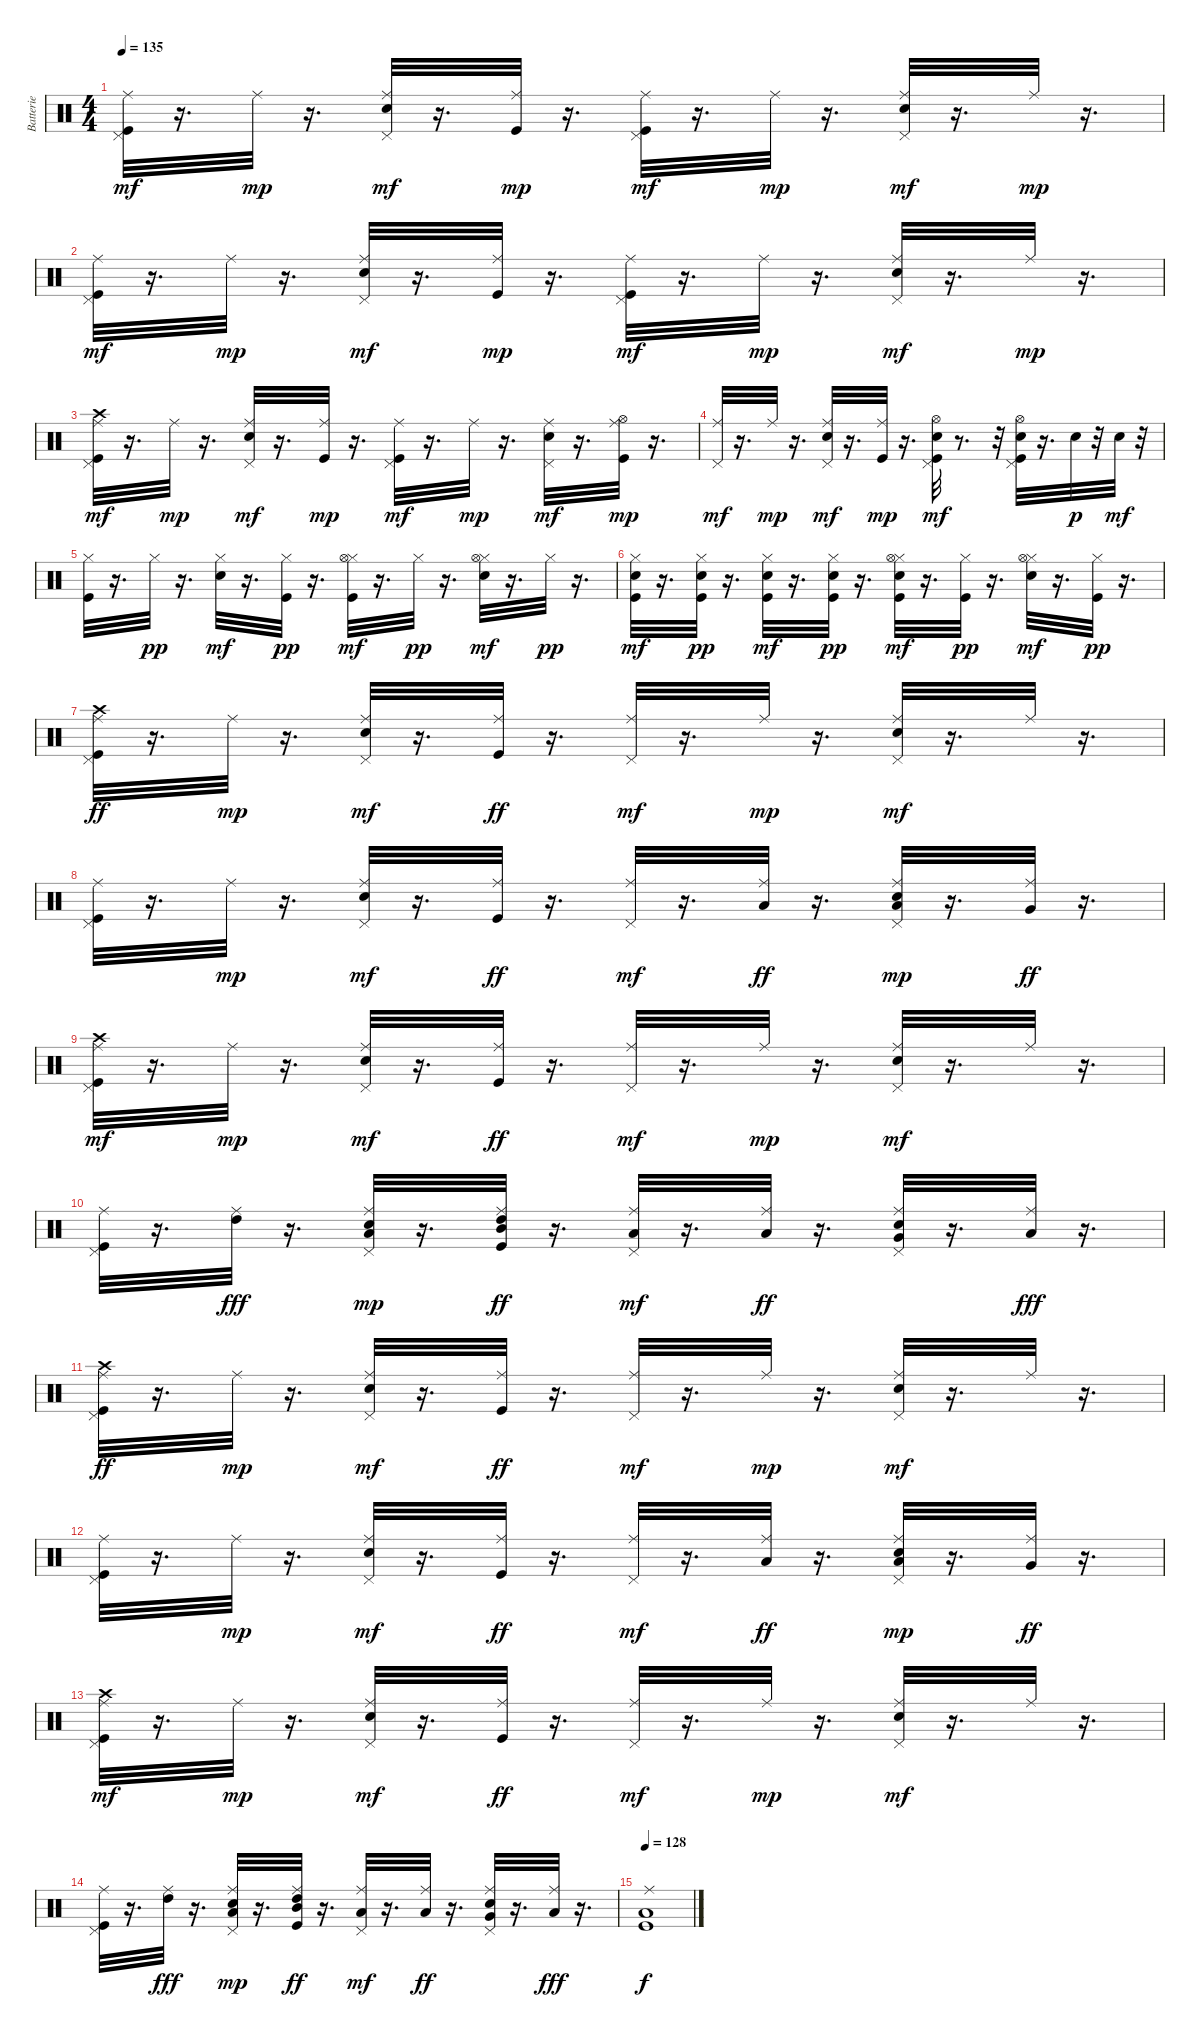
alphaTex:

\track ("Batterie" "Batterie") {instrument percussion}
\staff {score}
\articulation defaults
\ts (4 4)
\tempo 135
\clef neutral
\ks c
("Kick (hit)" "Pedal Hi-Hat (hit)" "Ride (middle)").32{dy mf} r.16{d} "Ride (middle)".32{dy mp} r.16{d} ("Electric Snare (hit)" "Pedal Hi-Hat (hit)" "Ride (middle)").32{dy mf} r.16{d} ("Kick (hit)" "Ride (middle)").32{dy mp} r.16{d} ("Kick (hit)" "Pedal Hi-Hat (hit)" "Ride (middle)").32{dy mf} r.16{d} "Ride (middle)".32{dy mp} r.16{d} ("Electric Snare (hit)" "Pedal Hi-Hat (hit)" "Ride (middle)").32{dy mf} r.16{d} "Ride (middle)".32{dy mp} r.16{d} |
("Kick (hit)" "Pedal Hi-Hat (hit)" "Ride (middle)").32{dy mf} r.16{d} "Ride (middle)".32{dy mp} r.16{d} ("Electric Snare (hit)" "Pedal Hi-Hat (hit)" "Ride (middle)").32{dy mf} r.16{d} ("Kick (hit)" "Ride (middle)").32{dy mp} r.16{d} ("Kick (hit)" "Pedal Hi-Hat (hit)" "Ride (middle)").32{dy mf} r.16{d} "Ride (middle)".32{dy mp} r.16{d} ("Electric Snare (hit)" "Pedal Hi-Hat (hit)" "Ride (middle)").32{dy mf} r.16{d} "Ride (middle)".32{dy mp} r.16{d} |
("Kick (hit)" "Pedal Hi-Hat (hit)" "Ride (middle)" "Crash high (hit)").32{dy mf} r.16{d} "Ride (middle)".32{dy mp} r.16{d} ("Electric Snare (hit)" "Pedal Hi-Hat (hit)" "Ride (middle)").32{dy mf} r.16{d} ("Kick (hit)" "Ride (middle)").32{dy mp} r.16{d} ("Kick (hit)" "Pedal Hi-Hat (hit)" "Ride (middle)").32{dy mf} r.16{d} "Ride (middle)".32{dy mp} r.16{d} ("Electric Snare (hit)" "Pedal Hi-Hat (hit)" "Ride (middle)").32{dy mf} r.16{d} ("Kick (hit)" "Hi-Hat (open)" "Ride (middle)").32{dy mp} r.16{d} |
("Pedal Hi-Hat (hit)" "Ride (middle)").32{dy mf} r.16{d} "Ride (middle)".32{dy mp} r.16{d} ("Electric Snare (hit)" "Pedal Hi-Hat (hit)" "Ride (middle)").32{dy mf} r.16{d} ("Kick (hit)" "Ride (middle)").32{dy mp} r.16{d} ("Kick (hit)" "Electric Snare (hit)" "Pedal Hi-Hat (hit)" "Hi-Hat (open)").32{dy mf} r.8{d} r.32 ("Kick (hit)" "Electric Snare (hit)" "Pedal Hi-Hat (hit)" "Hi-Hat (open)").32 r.16{d} "Electric Snare (hit)".32{dy p} r.32 "Electric Snare (hit)".32{dy mf} r.32 |
("Kick (hit)" "Hi-Hat (closed)").32 r.16{d} "Hi-Hat (closed)".32{dy pp} r.16{d} ("Electric Snare (hit)" "Hi-Hat (closed)").32{dy mf} r.16{d} ("Kick (hit)" "Hi-Hat (closed)").32{dy pp} r.16{d} ("Kick (hit)" "Hi-Hat (closed)" "Hi-Hat (open)").32{dy mf} r.16{d} "Hi-Hat (closed)".32{dy pp} r.16{d} ("Electric Snare (hit)" "Hi-Hat (closed)" "Hi-Hat (open)").32{dy mf} r.16{d} "Hi-Hat (closed)".32{dy pp} r.16{d} |
("Kick (hit)" "Electric Snare (hit)" "Hi-Hat (closed)").32{dy mf} r.16{d} ("Kick (hit)" "Electric Snare (hit)" "Hi-Hat (closed)").32{dy pp} r.16{d} ("Kick (hit)" "Electric Snare (hit)" "Hi-Hat (closed)").32{dy mf} r.16{d} ("Kick (hit)" "Electric Snare (hit)" "Hi-Hat (closed)").32{dy pp} r.16{d} ("Kick (hit)" "Electric Snare (hit)" "Hi-Hat (closed)" "Hi-Hat (open)").32{dy mf} r.16{d} ("Kick (hit)" "Hi-Hat (closed)").32{dy pp} r.16{d} ("Electric Snare (hit)" "Hi-Hat (closed)" "Hi-Hat (open)").32{dy mf} r.16{d} ("Kick (hit)" "Hi-Hat (closed)").32{dy pp} r.16{d} |
("Kick (hit)" "Pedal Hi-Hat (hit)" "Ride (middle)" "Crash high (hit)").32{dy ff} r.16{d} "Ride (middle)".32{dy mp} r.16{d} ("Electric Snare (hit)" "Pedal Hi-Hat (hit)" "Ride (middle)").32{dy mf} r.16{d} ("Kick (hit)" "Ride (middle)").32{dy ff} r.16{d} ("Pedal Hi-Hat (hit)" "Ride (middle)").32{dy mf} r.16{d} "Ride (middle)".32{dy mp} r.16{d} ("Electric Snare (hit)" "Pedal Hi-Hat (hit)" "Ride (middle)").32{dy mf} r.16{d} "Ride (middle)".32 r.16{d} |
("Kick (hit)" "Pedal Hi-Hat (hit)" "Ride (middle)").32 r.16{d} "Ride (middle)".32{dy mp} r.16{d} ("Electric Snare (hit)" "Pedal Hi-Hat (hit)" "Ride (middle)").32{dy mf} r.16{d} ("Kick (hit)" "Ride (middle)").32{dy ff} r.16{d} ("Pedal Hi-Hat (hit)" "Ride (middle)").32{dy mf} r.16{d} ("Ride (middle)" "Low Tom (hit)").32{dy ff} r.16{d} ("Electric Snare (hit)" "Pedal Hi-Hat (hit)" "Ride (middle)" "Low Tom (hit)").32{dy mp} r.16{d} ("Ride (middle)" "Very Low Tom (hit)").32{dy ff} r.16{d} |
("Kick (hit)" "Pedal Hi-Hat (hit)" "Ride (middle)" "Crash high (hit)").32{dy mf} r.16{d} "Ride (middle)".32{dy mp} r.16{d} ("Electric Snare (hit)" "Pedal Hi-Hat (hit)" "Ride (middle)").32{dy mf} r.16{d} ("Kick (hit)" "Ride (middle)").32{dy ff} r.16{d} ("Pedal Hi-Hat (hit)" "Ride (middle)").32{dy mf} r.16{d} "Ride (middle)".32{dy mp} r.16{d} ("Electric Snare (hit)" "Pedal Hi-Hat (hit)" "Ride (middle)").32{dy mf} r.16{d} "Ride (middle)".32 r.16{d} |
("Kick (hit)" "Pedal Hi-Hat (hit)" "Ride (middle)").32 r.16{d} ("Ride (middle)" "High Tom (hit)").32{dy fff} r.16{d} ("Electric Snare (hit)" "Pedal Hi-Hat (hit)" "Ride (middle)" "Low Tom (hit)").32{dy mp} r.16{d} ("Kick (hit)" "Ride (middle)" "Mid Tom (hit)" "High Tom (hit)").32{dy ff} r.16{d} ("Pedal Hi-Hat (hit)" "Ride (middle)" "Low Tom (hit)").32{dy mf} r.16{d} ("Ride (middle)" "Low Tom (hit)").32{dy ff} r.16{d} ("Electric Snare (hit)" "Pedal Hi-Hat (hit)" "Ride (middle)" "Very Low Tom (hit)").32 r.16{d} ("Ride (middle)" "Low Floor Tom (hit)").32{dy fff} r.16{d} |
("Kick (hit)" "Pedal Hi-Hat (hit)" "Ride (middle)" "Crash high (hit)").32{dy ff} r.16{d} "Ride (middle)".32{dy mp} r.16{d} ("Electric Snare (hit)" "Pedal Hi-Hat (hit)" "Ride (middle)").32{dy mf} r.16{d} ("Kick (hit)" "Ride (middle)").32{dy ff} r.16{d} ("Pedal Hi-Hat (hit)" "Ride (middle)").32{dy mf} r.16{d} "Ride (middle)".32{dy mp} r.16{d} ("Electric Snare (hit)" "Pedal Hi-Hat (hit)" "Ride (middle)").32{dy mf} r.16{d} "Ride (middle)".32 r.16{d} |
("Kick (hit)" "Pedal Hi-Hat (hit)" "Ride (middle)").32 r.16{d} "Ride (middle)".32{dy mp} r.16{d} ("Electric Snare (hit)" "Pedal Hi-Hat (hit)" "Ride (middle)").32{dy mf} r.16{d} ("Kick (hit)" "Ride (middle)").32{dy ff} r.16{d} ("Pedal Hi-Hat (hit)" "Ride (middle)").32{dy mf} r.16{d} ("Ride (middle)" "Low Tom (hit)").32{dy ff} r.16{d} ("Electric Snare (hit)" "Pedal Hi-Hat (hit)" "Ride (middle)" "Low Tom (hit)").32{dy mp} r.16{d} ("Ride (middle)" "Very Low Tom (hit)").32{dy ff} r.16{d} |
("Kick (hit)" "Pedal Hi-Hat (hit)" "Ride (middle)" "Crash high (hit)").32{dy mf} r.16{d} "Ride (middle)".32{dy mp} r.16{d} ("Electric Snare (hit)" "Pedal Hi-Hat (hit)" "Ride (middle)").32{dy mf} r.16{d} ("Kick (hit)" "Ride (middle)").32{dy ff} r.16{d} ("Pedal Hi-Hat (hit)" "Ride (middle)").32{dy mf} r.16{d} "Ride (middle)".32{dy mp} r.16{d} ("Electric Snare (hit)" "Pedal Hi-Hat (hit)" "Ride (middle)").32{dy mf} r.16{d} "Ride (middle)".32 r.16{d} |
("Kick (hit)" "Pedal Hi-Hat (hit)" "Ride (middle)").32 r.16{d} ("Ride (middle)" "High Tom (hit)").32{dy fff} r.16{d} ("Electric Snare (hit)" "Pedal Hi-Hat (hit)" "Ride (middle)" "Low Tom (hit)").32{dy mp} r.16{d} ("Kick (hit)" "Ride (middle)" "Mid Tom (hit)" "High Tom (hit)").32{dy ff} r.16{d} ("Pedal Hi-Hat (hit)" "Ride (middle)" "Low Tom (hit)").32{dy mf} r.16{d} ("Ride (middle)" "Low Tom (hit)").32{dy ff} r.16{d} ("Electric Snare (hit)" "Pedal Hi-Hat (hit)" "Ride (middle)" "Very Low Tom (hit)").32 r.16{d} ("Ride (middle)" "Low Floor Tom (hit)").32{dy fff} r.16{d} |
\tempo 128
("Kick (hit)" "Low Floor Tom (hit)" "Ride (middle)").1{dy f}
